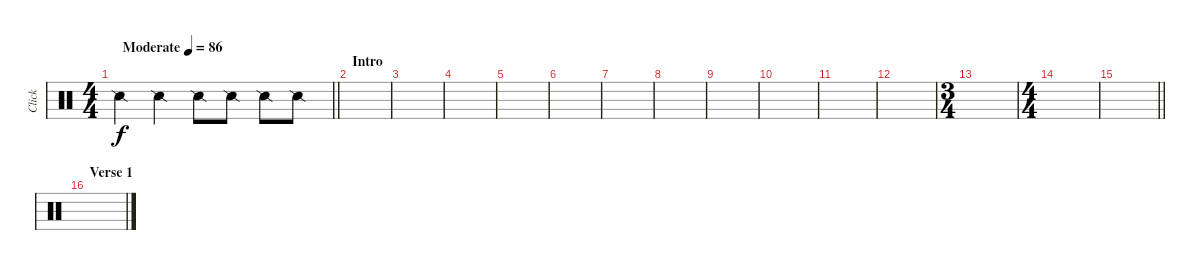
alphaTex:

\track ("Click" "Click") {instrument percussion}
\staff {score}
\articulation defaults
\ts (4 4)
\tempo (86 "Moderate")
\clef neutral
\barLineRight lightlight
\ks c "Snare (side stick) 2".4{dy f} "Snare (side stick) 2".4 "Snare (side stick) 2".8 "Snare (side stick) 2".8 "Snare (side stick) 2".8 "Snare (side stick) 2".8
|
\section ("" "Intro")
|
|
|
|
|
|
|
|
|
|
|
\ts (3 4)
|
\ts (4 4)
|
\barLineRight lightlight
|
\section ("" "Verse 1")
